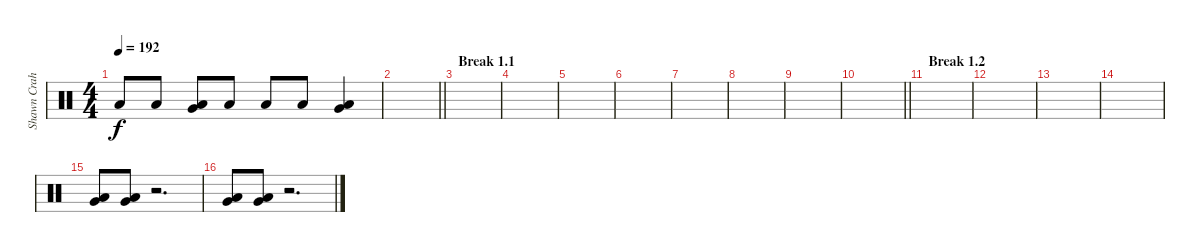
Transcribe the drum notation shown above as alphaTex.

\track ("Shawn Crahan" "Shawn Crah") {instrument percussion}
\staff {score}
\articulation defaults
\ts (4 4)
\tempo 192
\clef neutral
\ks c "Low Floor Tom (hit)".8{dy f} "Low Floor Tom (hit)".8
("Very Low Tom (hit)" "Low Floor Tom (hit)").8 "Low Floor Tom (hit)".8 "Low Floor Tom (hit)".8 "Low Floor Tom (hit)".8 ("Very Low Tom (hit)" "Low Floor Tom (hit)").4 |
\barLineRight lightlight
|
\section ("" "Break 1.1")
|
|
|
|
|
|
|
\barLineRight lightlight
|
\section ("" "Break 1.2")
|
|
|
|
("Very Low Tom (hit)" "Low Floor Tom (hit)").8 ("Very Low Tom (hit)" "Low Floor Tom (hit)").8 r.2{d} |
("Very Low Tom (hit)" "Low Floor Tom (hit)").8 ("Very Low Tom (hit)" "Low Floor Tom (hit)").8 r.2{d}
